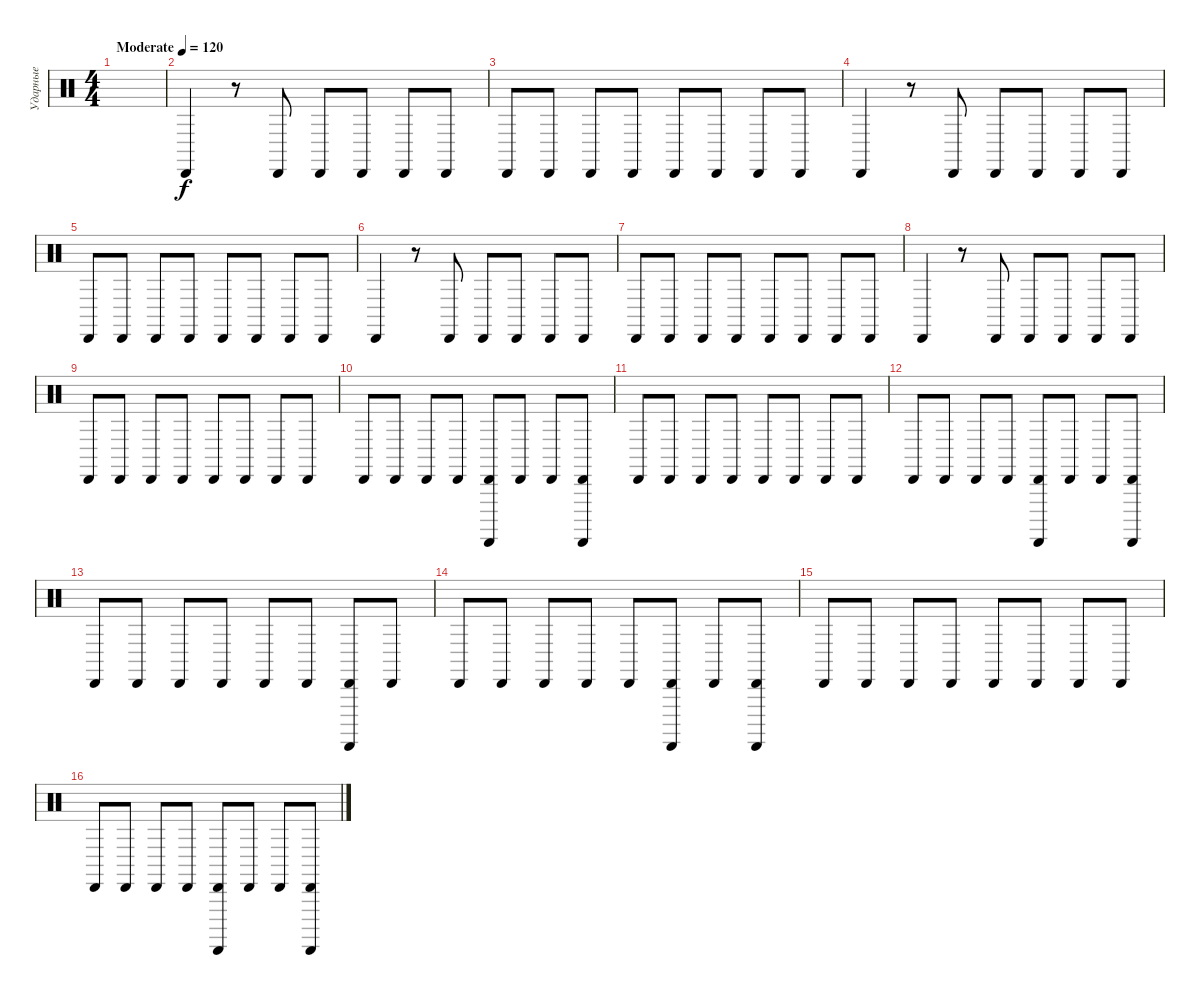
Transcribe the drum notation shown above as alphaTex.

\track ("Ударные" "Ударные") {instrument percussion}
\staff {score}
\articulation defaults
\ts (4 4)
\tempo (120 "Moderate")
\clef neutral
\ks c
|
"Cabasa (hit)".4 r.8 "Cabasa (hit)".8 "Cabasa (hit)".8 "Cabasa (hit)".8 "Cabasa (hit)".8 "Cabasa (hit)".8 |
"Cabasa (hit)".8 "Cabasa (hit)".8 "Cabasa (hit)".8 "Cabasa (hit)".8 "Cabasa (hit)".8 "Cabasa (hit)".8 "Cabasa (hit)".8 "Cabasa (hit)".8 |
"Cabasa (hit)".4 r.8 "Cabasa (hit)".8 "Cabasa (hit)".8 "Cabasa (hit)".8 "Cabasa (hit)".8 "Cabasa (hit)".8 |
"Cabasa (hit)".8 "Cabasa (hit)".8 "Cabasa (hit)".8 "Cabasa (hit)".8 "Cabasa (hit)".8 "Cabasa (hit)".8 "Cabasa (hit)".8 "Cabasa (hit)".8 |
"Cabasa (hit)".4 r.8 "Cabasa (hit)".8 "Cabasa (hit)".8 "Cabasa (hit)".8 "Cabasa (hit)".8 "Cabasa (hit)".8 |
"Cabasa (hit)".8 "Cabasa (hit)".8 "Cabasa (hit)".8 "Cabasa (hit)".8 "Cabasa (hit)".8 "Cabasa (hit)".8 "Cabasa (hit)".8 "Cabasa (hit)".8 |
"Cabasa (hit)".4 r.8 "Cabasa (hit)".8 "Cabasa (hit)".8 "Cabasa (hit)".8 "Cabasa (hit)".8 "Cabasa (hit)".8 |
"Cabasa (hit)".8 "Cabasa (hit)".8 "Cabasa (hit)".8 "Cabasa (hit)".8 "Cabasa (hit)".8 "Cabasa (hit)".8 "Cabasa (hit)".8 "Cabasa (hit)".8 |
"Cabasa (hit)".8 "Cabasa (hit)".8 "Cabasa (hit)".8 "Cabasa (hit)".8 ("Cabasa (hit)" "Guiro (scrap-return)").8 "Cabasa (hit)".8 "Cabasa (hit)".8 ("Cabasa (hit)" "Guiro (scrap-return)").8 |
"Cabasa (hit)".8 "Cabasa (hit)".8 "Cabasa (hit)".8 "Cabasa (hit)".8 "Cabasa (hit)".8 "Cabasa (hit)".8 "Cabasa (hit)".8 "Cabasa (hit)".8 |
"Cabasa (hit)".8 "Cabasa (hit)".8 "Cabasa (hit)".8 "Cabasa (hit)".8 ("Cabasa (hit)" "Guiro (scrap-return)").8 "Cabasa (hit)".8 "Cabasa (hit)".8 ("Cabasa (hit)" "Guiro (scrap-return)").8 |
"Cabasa (hit)".8 "Cabasa (hit)".8 "Cabasa (hit)".8 "Cabasa (hit)".8 "Cabasa (hit)".8 "Cabasa (hit)".8 ("Cabasa (hit)" "Guiro (scrap-return)").8 "Cabasa (hit)".8 |
"Cabasa (hit)".8 "Cabasa (hit)".8 "Cabasa (hit)".8 "Cabasa (hit)".8 "Cabasa (hit)".8 ("Cabasa (hit)" "Guiro (scrap-return)").8 "Cabasa (hit)".8 ("Cabasa (hit)" "Guiro (scrap-return)").8 |
"Cabasa (hit)".8 "Cabasa (hit)".8 "Cabasa (hit)".8 "Cabasa (hit)".8 "Cabasa (hit)".8 "Cabasa (hit)".8 "Cabasa (hit)".8 "Cabasa (hit)".8 |
"Cabasa (hit)".8 "Cabasa (hit)".8 "Cabasa (hit)".8 "Cabasa (hit)".8 ("Cabasa (hit)" "Guiro (scrap-return)").8 "Cabasa (hit)".8 "Cabasa (hit)".8 ("Cabasa (hit)" "Guiro (scrap-return)").8
